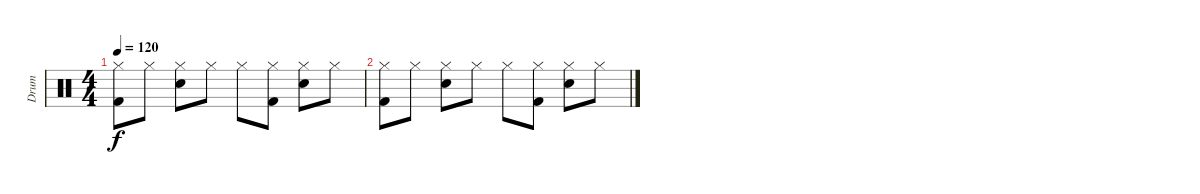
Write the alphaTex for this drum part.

\track ("Drum" "Drum") {instrument percussion}
\staff {score}
\articulation defaults
\ts (4 4)
\tempo 120
\clef neutral
\ks c
("Kick (hit) 2" "Hi-Hat (closed)").8{dy f} "Hi-Hat (closed)".8 ("Snare (hit) 2" "Hi-Hat (closed)").8 "Hi-Hat (closed)".8 "Hi-Hat (closed)".8 ("Kick (hit) 2" "Hi-Hat (closed)").8 ("Snare (hit) 2" "Hi-Hat (closed)").8 "Hi-Hat (closed)".8 |
("Kick (hit) 2" "Hi-Hat (closed)").8 "Hi-Hat (closed)".8 ("Snare (hit) 2" "Hi-Hat (closed)").8 "Hi-Hat (closed)".8 "Hi-Hat (closed)".8 ("Kick (hit) 2" "Hi-Hat (closed)").8 ("Snare (hit) 2" "Hi-Hat (closed)").8 "Hi-Hat (closed)".8
